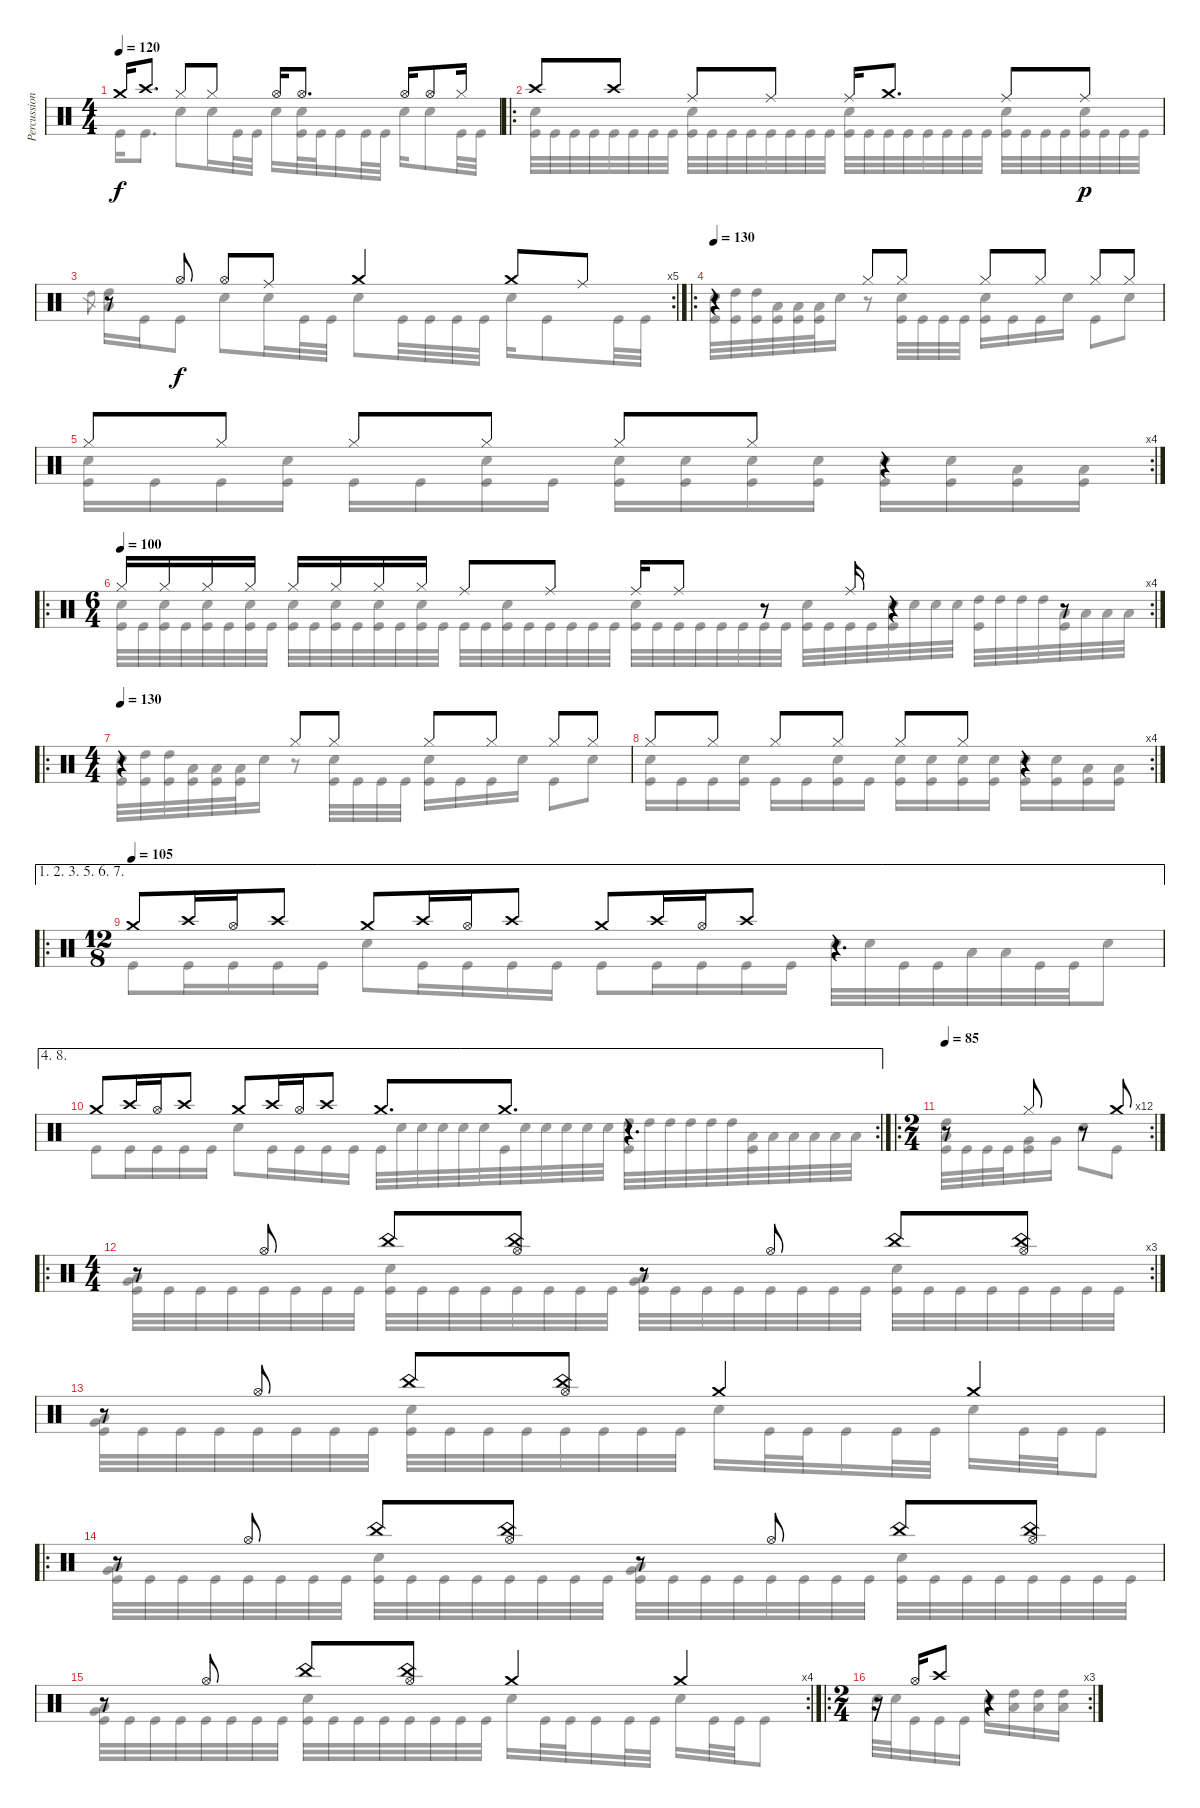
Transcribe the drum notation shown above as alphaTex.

\track ("Percussions" "Percussion") {instrument percussion}
\staff {score}
\articulation defaults
\voice
\ts (4 4)
\tempo 120
\clef neutral
\ks c "Crash medium (hit)".16{dy f} "Crash high (hit)".8{d} "Hi-Hat (closed)".8 "Hi-Hat (closed)".8 "Hi-Hat (open)".16 "Hi-Hat (open)".8{d} "Hi-Hat (open)".16 "Hi-Hat (open)".8 "Hi-Hat (closed)".16
|
\ro "Crash high (hit)".8 "Crash high (hit)".8 "Ride (middle)".8 "Ride (middle)".8 "Ride (middle)".16 "Crash medium (hit)".8{d} "Ride (middle)".8 "Ride (middle)".8{dy p}
|
\rc 5
r.8 "Hi-Hat (open)".8{dy f} "Hi-Hat (open)".8 "Ride (middle)".8 "Crash medium (hit)".4 "Crash medium (hit)".8 "Ride (middle)".8 |
\ro
\tempo 130
r.4 "Hi-Hat (closed)".8 "Hi-Hat (closed)".8 "Hi-Hat (closed)".8 "Hi-Hat (closed)".8 "Hi-Hat (closed)".8 "Hi-Hat (closed)".8 |
\rc 4 "Hi-Hat (closed)".8 "Hi-Hat (closed)".8 "Hi-Hat (closed)".8 "Hi-Hat (closed)".8 "Hi-Hat (closed)".8 "Hi-Hat (closed)".8
r.4 |
\ro
\rc 4
\ts (6 4)
\tempo (100)
"Hi-Hat (closed)".16 "Hi-Hat (closed)".16 "Hi-Hat (closed)".16 "Hi-Hat (closed)".16 "Hi-Hat (closed)".16 "Hi-Hat (closed)".16 "Hi-Hat (closed)".16 "Hi-Hat (closed)".16 "Ride (middle)".8 "Ride (middle)".8 "Ride (middle)".16 "Ride (middle)".8 r.8 "Ride (middle)".16 r.4 r.8 |
\ro
\ts (4 4)
\tempo 130
r.4 "Hi-Hat (closed)".8 "Hi-Hat (closed)".8 "Hi-Hat (closed)".8 "Hi-Hat (closed)".8 "Hi-Hat (closed)".8 "Hi-Hat (closed)".8 |
\rc 4 "Hi-Hat (closed)".8 "Hi-Hat (closed)".8 "Hi-Hat (closed)".8 "Hi-Hat (closed)".8 "Hi-Hat (closed)".8 "Hi-Hat (closed)".8
r.4 |
\ae (1 2 3 5 6 7)
\ro
\ts (12 8)
\tempo (105)
"Crash medium (hit)".8 "Crash high (hit)".16 "Hi-Hat (open)".16 "Crash high (hit)".8 "Crash medium (hit)".8 "Crash high (hit)".16 "Hi-Hat (open)".16 "Crash high (hit)".8 "Crash medium (hit)".8 "Crash high (hit)".16 "Hi-Hat (open)".16 "Crash high (hit)".8 r.4{d} |
\ae (4 8)
\rc 2 "Crash medium (hit)".8 "Crash high (hit)".16 "Hi-Hat (open)".16 "Crash high (hit)".8 "Crash medium (hit)".8 "Crash high (hit)".16 "Hi-Hat (open)".16 "Crash high (hit)".8 "Crash medium (hit)".8{d} "Crash medium (hit)".8{d}
r.4{d} |
\ro
\rc 12
\ts (2 4)
\tempo 85
r.8 "Hi-Hat (closed)".8 r.8 "Crash medium (hit)".8 |
\ro
\rc 3
\ts (4 4)
r.8 "Hi-Hat (open)".8 "China (hit)".8 ("Hi-Hat (open)" "China (hit)").8 r.8 "Hi-Hat (open)".8 "China (hit)".8 ("Hi-Hat (open)" "China (hit)").8 |
r.8 "Hi-Hat (open)".8 "China (hit)".8 ("Hi-Hat (open)" "China (hit)").8 "Crash medium (hit)".4 "Crash medium (hit)".4 |
\ro
r.8 "Hi-Hat (open)".8 "China (hit)".8 ("Hi-Hat (open)" "China (hit)").8 r.8 "Hi-Hat (open)".8 "China (hit)".8 ("Hi-Hat (open)" "China (hit)").8 |
\rc 4
r.8 "Hi-Hat (open)".8 "China (hit)".8 ("Hi-Hat (open)" "China (hit)").8 "Crash medium (hit)".4 "Crash medium (hit)".4 |
\ro
\rc 3
\ts (2 4)
r.16 "Hi-Hat (open)".16 "Crash high (hit)".8 r.4
\voice
\clef neutral
\ottava regular
\simile none
\ks c "Kick (hit)".16{dy f} "Kick (hit)".8{d} "Snare (hit) 2".8 "Snare (hit) 2".16 "Kick (hit)".32 "Kick (hit)".32 "Snare (hit) 2".16
("Snare (hit) 2" "Kick (hit)").32 "Kick (hit)".32 "Kick (hit)".16 "Kick (hit)".32 "Kick (hit)".32 "Snare (hit) 2".16 "Snare (hit) 2".8 "Kick (hit)".32 "Kick (hit)".32 |
("Snare (hit) 2" "Kick (hit)").32 "Kick (hit)".32 "Kick (hit)".32 "Kick (hit)".32 "Kick (hit)".32 "Kick (hit)".32 "Kick (hit)".32 "Kick (hit)".32 ("Snare (hit) 2" "Kick (hit)").32 "Kick (hit)".32 "Kick (hit)".32 "Kick (hit)".32 "Kick (hit)".32 "Kick (hit)".32 "Kick (hit)".32 "Kick (hit)".32 ("Snare (hit) 2" "Kick (hit)").32 "Kick (hit)".32 "Kick (hit)".32 "Kick (hit)".32 "Kick (hit)".32 "Kick (hit)".32 "Kick (hit)".32 "Kick (hit)".32 ("Snare (hit) 2" "Kick (hit)").32 "Kick (hit)".32 "Kick (hit)".32 "Kick (hit)".32 ("Snare (hit) 2" "Kick (hit)").32 "Kick (hit)".32 "Kick (hit)".32 "Kick (hit)".32 |
"High Tom (hit)".8{gr} ("High Tom (hit)" "Low Tom (hit)").16 "Kick (hit)".16 "Kick (hit)".8 "Snare (hit) 2".8 "Snare (hit) 2".16 "Kick (hit)".32 "Kick (hit)".32 "Snare (hit) 2".8 "Kick (hit)".32 "Kick (hit)".32 "Kick (hit)".32 "Kick (hit)".32 "Snare (hit) 2".16 "Kick (hit)".8 "Kick (hit)".32 "Kick (hit)".32 |
("Snare (hit) 2" "Kick (hit)").32 ("High Tom (hit)" "Kick (hit)").32 ("High Tom (hit)" "Kick (hit)").32 ("Low Tom (hit)" "Kick (hit)").32 ("Low Tom (hit)" "Kick (hit)").32 ("Low Tom (hit)" "Kick (hit)").32 "Snare (hit) 2".16 r.8 ("Snare (hit) 2" "Kick (hit)").32 "Kick (hit)".32 "Kick (hit)".32 "Kick (hit)".32 ("Snare (hit) 2" "Kick (hit)").16 "Kick (hit)".16 "Kick (hit)".16 "Snare (hit) 2".16 "Kick (hit)".8 "Snare (hit) 2".8 |
("Snare (hit) 2" "Kick (hit)").16 "Kick (hit)".16 "Kick (hit)".16 ("Snare (hit) 2" "Kick (hit)").16 "Kick (hit)".16 "Kick (hit)".16 ("Snare (hit) 2" "Kick (hit)").16 "Kick (hit)".16 ("Snare (hit) 2" "Kick (hit)").16 ("Snare (hit) 2" "Kick (hit)").16 ("Snare (hit) 2" "Kick (hit)").16 ("Snare (hit) 2" "Kick (hit)").16 ("Snare (hit) 2" "Kick (hit)").16 ("Snare (hit) 2" "Kick (hit)").16 ("Low Tom (hit)" "Kick (hit)").16 ("Low Tom (hit)" "Kick (hit)").16 |
("Snare (hit) 2" "Kick (hit)").32 "Kick (hit)".32 ("Snare (hit) 2" "Kick (hit)").32 "Kick (hit)".32 ("Snare (hit) 2" "Kick (hit)").32 "Kick (hit)".32 ("Snare (hit) 2" "Kick (hit)").32 "Kick (hit)".32 ("Snare (hit) 2" "Kick (hit)").32 "Kick (hit)".32 ("Snare (hit) 2" "Kick (hit)").32 "Kick (hit)".32 ("Snare (hit) 2" "Kick (hit)").32 "Kick (hit)".32 ("Snare (hit) 2" "Kick (hit)").32 "Kick (hit)".32 "Kick (hit)".32 "Kick (hit)".32 ("Snare (hit) 2" "Kick (hit)").32 "Kick (hit)".32 "Kick (hit)".32 "Kick (hit)".32 "Kick (hit)".32 "Kick (hit)".32 ("Snare (hit) 2" "Kick (hit)").32 "Kick (hit)".32 "Kick (hit)".32 "Kick (hit)".32 "Kick (hit)".32 "Kick (hit)".32 "Kick (hit)".32 "Kick (hit)".32 ("Snare (hit) 2" "Kick (hit)").32 "Kick (hit)".32 "Kick (hit)".32 "Kick (hit)".32 ("Snare (hit) 2" "Kick (hit)").32 "Snare (hit) 2".32 "Snare (hit) 2".32 "Snare (hit) 2".32 ("High Tom (hit)" "Kick (hit)").32 "High Tom (hit)".32 "High Tom (hit)".32 "High Tom (hit)".32 ("Low Tom (hit)" "Kick (hit)").32 "Low Tom (hit)".32 "Low Tom (hit)".32 "Low Tom (hit)".32 |
("Snare (hit) 2" "Kick (hit)").32 ("High Tom (hit)" "Kick (hit)").32 ("High Tom (hit)" "Kick (hit)").32 ("Low Tom (hit)" "Kick (hit)").32 ("Low Tom (hit)" "Kick (hit)").32 ("Low Tom (hit)" "Kick (hit)").32 "Snare (hit) 2".16 r.8 ("Snare (hit) 2" "Kick (hit)").32 "Kick (hit)".32 "Kick (hit)".32 "Kick (hit)".32 ("Snare (hit) 2" "Kick (hit)").16 "Kick (hit)".16 "Kick (hit)".16 "Snare (hit) 2".16 "Kick (hit)".8 "Snare (hit) 2".8 |
("Snare (hit) 2" "Kick (hit)").16 "Kick (hit)".16 "Kick (hit)".16 ("Snare (hit) 2" "Kick (hit)").16 "Kick (hit)".16 "Kick (hit)".16 ("Snare (hit) 2" "Kick (hit)").16 "Kick (hit)".16 ("Snare (hit) 2" "Kick (hit)").16 ("Snare (hit) 2" "Kick (hit)").16 ("Snare (hit) 2" "Kick (hit)").16 ("Snare (hit) 2" "Kick (hit)").16 ("Snare (hit) 2" "Kick (hit)").16 ("Snare (hit) 2" "Kick (hit)").16 ("Low Tom (hit)" "Kick (hit)").16 ("Low Tom (hit)" "Kick (hit)").16 |
"Kick (hit)".8 "Kick (hit)".16 "Kick (hit)".16 "Kick (hit)".16 "Kick (hit)".16 "Snare (hit) 2".8 "Kick (hit)".16 "Kick (hit)".16 "Kick (hit)".16 "Kick (hit)".16 "Kick (hit)".8 "Kick (hit)".16 "Kick (hit)".16 "Kick (hit)".16 "Kick (hit)".16 "Snare (hit) 2".32 "Snare (hit) 2".32 "Kick (hit)".32 "Kick (hit)".32 "Low Tom (hit)".32 "Low Tom (hit)".32 "Kick (hit)".32 "Kick (hit)".32 "Snare (hit) 2".8 |
"Kick (hit)".8 "Kick (hit)".16 "Kick (hit)".16 "Kick (hit)".16 "Kick (hit)".16 "Snare (hit) 2".8 "Kick (hit)".16 "Kick (hit)".16 "Kick (hit)".16 "Kick (hit)".16 "Kick (hit)".32 "Snare (hit) 2".32 "Snare (hit) 2".32 "Snare (hit) 2".32 "Snare (hit) 2".32 "Snare (hit) 2".32 "Kick (hit)".32 "Snare (hit) 2".32 "Snare (hit) 2".32 "Snare (hit) 2".32 "Snare (hit) 2".32 "Snare (hit) 2".32 ("High Tom (hit)" "Kick (hit)").32 "High Tom (hit)".32 "High Tom (hit)".32 "High Tom (hit)".32 "High Tom (hit)".32 "High Tom (hit)".32 ("Low Tom (hit)" "Kick (hit)").32 "Low Tom (hit)".32 "Low Tom (hit)".32 "Low Tom (hit)".32 "Low Tom (hit)".32 "Low Tom (hit)".32 |
("High Tom (hit)" "Low Tom (hit)" "Kick (hit)").32 "Kick (hit)".32 "Kick (hit)".32 "Kick (hit)".32 ("Very Low Tom (hit)" "Kick (hit)").16 "Very Low Tom (hit)".16 "Snare (hit) 2".8 "Kick (hit)".8 |
("Low Tom (hit)" "Very Low Tom (hit)" "Kick (hit)").32 "Kick (hit)".32 "Kick (hit)".32 "Kick (hit)".32 "Kick (hit)".32 "Kick (hit)".32 "Kick (hit)".32 "Kick (hit)".32 ("Snare (hit) 2" "Kick (hit)").32 "Kick (hit)".32 "Kick (hit)".32 "Kick (hit)".32 "Kick (hit)".32 "Kick (hit)".32 "Kick (hit)".32 "Kick (hit)".32 ("Low Tom (hit)" "Very Low Tom (hit)" "Kick (hit)").32 "Kick (hit)".32 "Kick (hit)".32 "Kick (hit)".32 "Kick (hit)".32 "Kick (hit)".32 "Kick (hit)".32 "Kick (hit)".32 ("Snare (hit) 2" "Kick (hit)").32 "Kick (hit)".32 "Kick (hit)".32 "Kick (hit)".32 "Kick (hit)".32 "Kick (hit)".32 "Kick (hit)".32 "Kick (hit)".32 |
("Low Tom (hit)" "Very Low Tom (hit)" "Kick (hit)").32 "Kick (hit)".32 "Kick (hit)".32 "Kick (hit)".32 "Kick (hit)".32 "Kick (hit)".32 "Kick (hit)".32 "Kick (hit)".32 ("Snare (hit) 2" "Kick (hit)").32 "Kick (hit)".32 "Kick (hit)".32 "Kick (hit)".32 "Kick (hit)".32 "Kick (hit)".32 "Kick (hit)".32 "Kick (hit)".32 "Snare (hit) 2".16 "Kick (hit)".32 "Kick (hit)".32 "Kick (hit)".16 "Kick (hit)".32 "Kick (hit)".32 "Snare (hit) 2".16 "Kick (hit)".32 "Kick (hit)".32 "Kick (hit)".8 |
("Low Tom (hit)" "Very Low Tom (hit)" "Kick (hit)").32 "Kick (hit)".32 "Kick (hit)".32 "Kick (hit)".32 "Kick (hit)".32 "Kick (hit)".32 "Kick (hit)".32 "Kick (hit)".32 ("Snare (hit) 2" "Kick (hit)").32 "Kick (hit)".32 "Kick (hit)".32 "Kick (hit)".32 "Kick (hit)".32 "Kick (hit)".32 "Kick (hit)".32 "Kick (hit)".32 ("Low Tom (hit)" "Very Low Tom (hit)" "Kick (hit)").32 "Kick (hit)".32 "Kick (hit)".32 "Kick (hit)".32 "Kick (hit)".32 "Kick (hit)".32 "Kick (hit)".32 "Kick (hit)".32 ("Snare (hit) 2" "Kick (hit)").32 "Kick (hit)".32 "Kick (hit)".32 "Kick (hit)".32 "Kick (hit)".32 "Kick (hit)".32 "Kick (hit)".32 "Kick (hit)".32 |
("Low Tom (hit)" "Very Low Tom (hit)" "Kick (hit)").32 "Kick (hit)".32 "Kick (hit)".32 "Kick (hit)".32 "Kick (hit)".32 "Kick (hit)".32 "Kick (hit)".32 "Kick (hit)".32 ("Snare (hit) 2" "Kick (hit)").32 "Kick (hit)".32 "Kick (hit)".32 "Kick (hit)".32 "Kick (hit)".32 "Kick (hit)".32 "Kick (hit)".32 "Kick (hit)".32 "Snare (hit) 2".16 "Kick (hit)".32 "Kick (hit)".32 "Kick (hit)".16 "Kick (hit)".32 "Kick (hit)".32 "Snare (hit) 2".16 "Kick (hit)".32 "Kick (hit)".32 "Kick (hit)".8 |
"Snare (hit) 2".32 "Snare (hit) 2".32 "Kick (hit)".16 "Kick (hit)".16 "Kick (hit)".16 "Snare (hit) 2".16 ("High Tom (hit)" "Low Tom (hit)").16 ("High Tom (hit)" "Low Tom (hit)").16 ("High Tom (hit)" "Low Tom (hit)").16
